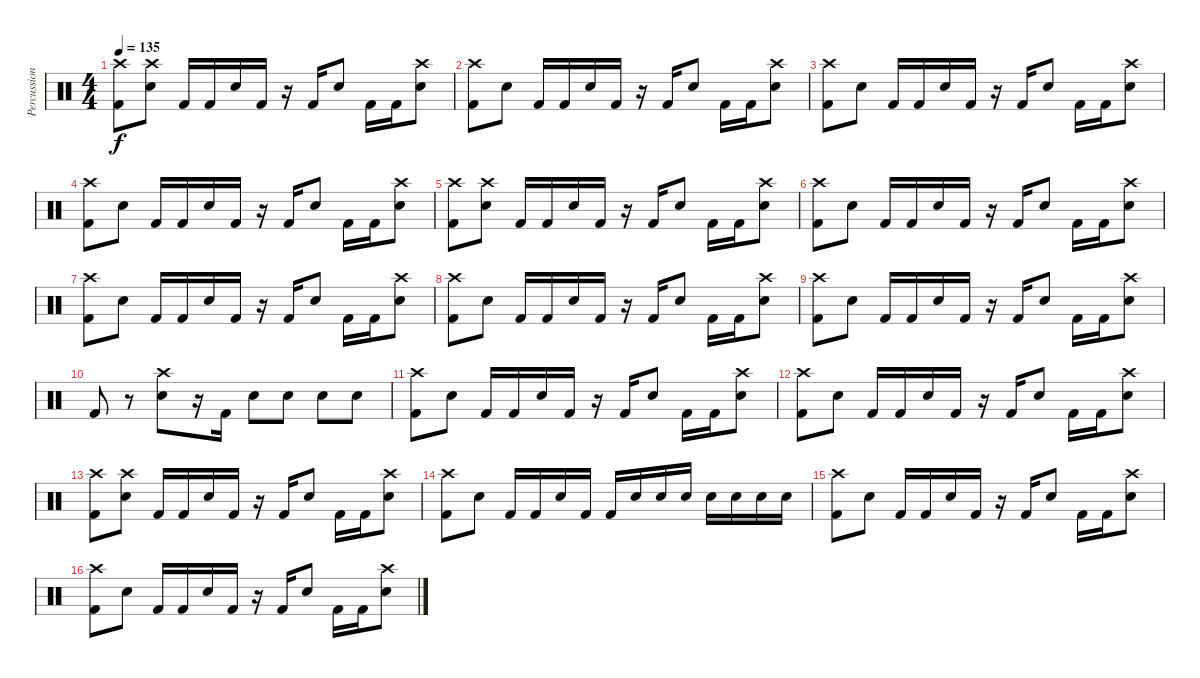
\track ("Percussion" "Percussion") {instrument percussion}
\staff {score}
\articulation defaults
\ts (4 4)
\tempo 135
\clef neutral
\ks c
("Kick (hit) 2" "Crash high (hit)").8{dy f} ("Electric Snare (hit)" "Crash high (hit)").8 "Kick (hit) 2".16 "Kick (hit) 2".16 "Electric Snare (hit)".16 "Kick (hit) 2".16 r.16 "Kick (hit) 2".16 "Electric Snare (hit)".8 "Kick (hit) 2".16 "Kick (hit) 2".16 ("Electric Snare (hit)" "Crash high (hit)").8 |
("Kick (hit) 2" "Crash high (hit)").8 "Electric Snare (hit)".8 "Kick (hit) 2".16 "Kick (hit) 2".16 "Electric Snare (hit)".16 "Kick (hit) 2".16 r.16 "Kick (hit) 2".16 "Electric Snare (hit)".8 "Kick (hit) 2".16 "Kick (hit) 2".16 ("Electric Snare (hit)" "Crash high (hit)").8 |
("Kick (hit) 2" "Crash high (hit)").8 "Electric Snare (hit)".8 "Kick (hit) 2".16 "Kick (hit) 2".16 "Electric Snare (hit)".16 "Kick (hit) 2".16 r.16 "Kick (hit) 2".16 "Electric Snare (hit)".8 "Kick (hit) 2".16 "Kick (hit) 2".16 ("Electric Snare (hit)" "Crash high (hit)").8 |
("Kick (hit) 2" "Crash high (hit)").8 "Electric Snare (hit)".8 "Kick (hit) 2".16 "Kick (hit) 2".16 "Electric Snare (hit)".16 "Kick (hit) 2".16 r.16 "Kick (hit) 2".16 "Electric Snare (hit)".8 "Kick (hit) 2".16 "Kick (hit) 2".16 ("Electric Snare (hit)" "Crash high (hit)").8 |
("Kick (hit) 2" "Crash high (hit)").8 ("Electric Snare (hit)" "Crash high (hit)").8 "Kick (hit) 2".16 "Kick (hit) 2".16 "Electric Snare (hit)".16 "Kick (hit) 2".16 r.16 "Kick (hit) 2".16 "Electric Snare (hit)".8 "Kick (hit) 2".16 "Kick (hit) 2".16 ("Electric Snare (hit)" "Crash high (hit)").8 |
("Kick (hit) 2" "Crash high (hit)").8 "Electric Snare (hit)".8 "Kick (hit) 2".16 "Kick (hit) 2".16 "Electric Snare (hit)".16 "Kick (hit) 2".16 r.16 "Kick (hit) 2".16 "Electric Snare (hit)".8 "Kick (hit) 2".16 "Kick (hit) 2".16 ("Electric Snare (hit)" "Crash high (hit)").8 |
("Kick (hit) 2" "Crash high (hit)").8 "Electric Snare (hit)".8 "Kick (hit) 2".16 "Kick (hit) 2".16 "Electric Snare (hit)".16 "Kick (hit) 2".16 r.16 "Kick (hit) 2".16 "Electric Snare (hit)".8 "Kick (hit) 2".16 "Kick (hit) 2".16 ("Electric Snare (hit)" "Crash high (hit)").8 |
("Kick (hit) 2" "Crash high (hit)").8 "Electric Snare (hit)".8 "Kick (hit) 2".16 "Kick (hit) 2".16 "Electric Snare (hit)".16 "Kick (hit) 2".16 r.16 "Kick (hit) 2".16 "Electric Snare (hit)".8 "Kick (hit) 2".16 "Kick (hit) 2".16 ("Electric Snare (hit)" "Crash high (hit)").8 |
("Kick (hit) 2" "Crash high (hit)").8 "Electric Snare (hit)".8 "Kick (hit) 2".16 "Kick (hit) 2".16 "Electric Snare (hit)".16 "Kick (hit) 2".16 r.16 "Kick (hit) 2".16 "Electric Snare (hit)".8 "Kick (hit) 2".16 "Kick (hit) 2".16 ("Electric Snare (hit)" "Crash high (hit)").8 |
"Kick (hit) 2".8 r.8 ("Electric Snare (hit)" "Crash high (hit)").8 r.16 "Kick (hit) 2".16 "Electric Snare (hit)".8 "Electric Snare (hit)".8 "Electric Snare (hit)".8 "Electric Snare (hit)".8 |
("Kick (hit) 2" "Crash high (hit)").8 "Electric Snare (hit)".8 "Kick (hit) 2".16 "Kick (hit) 2".16 "Electric Snare (hit)".16 "Kick (hit) 2".16 r.16 "Kick (hit) 2".16 "Electric Snare (hit)".8 "Kick (hit) 2".16 "Kick (hit) 2".16 ("Electric Snare (hit)" "Crash high (hit)").8 |
("Kick (hit) 2" "Crash high (hit)").8 "Electric Snare (hit)".8 "Kick (hit) 2".16 "Kick (hit) 2".16 "Electric Snare (hit)".16 "Kick (hit) 2".16 r.16 "Kick (hit) 2".16 "Electric Snare (hit)".8 "Kick (hit) 2".16 "Kick (hit) 2".16 ("Electric Snare (hit)" "Crash high (hit)").8 |
("Kick (hit) 2" "Crash high (hit)").8 ("Electric Snare (hit)" "Crash high (hit)").8 "Kick (hit) 2".16 "Kick (hit) 2".16 "Electric Snare (hit)".16 "Kick (hit) 2".16 r.16 "Kick (hit) 2".16 "Electric Snare (hit)".8 "Kick (hit) 2".16 "Kick (hit) 2".16 ("Electric Snare (hit)" "Crash high (hit)").8 |
("Kick (hit) 2" "Crash high (hit)").8 "Electric Snare (hit)".8 "Kick (hit) 2".16 "Kick (hit) 2".16 "Electric Snare (hit)".16 "Kick (hit) 2".16 "Kick (hit) 2".16 "Electric Snare (hit)".16 "Electric Snare (hit)".16 "Electric Snare (hit)".16 "Electric Snare (hit)".16 "Electric Snare (hit)".16 "Electric Snare (hit)".16 "Electric Snare (hit)".16 |
("Kick (hit) 2" "Crash high (hit)").8 "Electric Snare (hit)".8 "Kick (hit) 2".16 "Kick (hit) 2".16 "Electric Snare (hit)".16 "Kick (hit) 2".16 r.16 "Kick (hit) 2".16 "Electric Snare (hit)".8 "Kick (hit) 2".16 "Kick (hit) 2".16 ("Electric Snare (hit)" "Crash high (hit)").8 |
("Kick (hit) 2" "Crash high (hit)").8 "Electric Snare (hit)".8 "Kick (hit) 2".16 "Kick (hit) 2".16 "Electric Snare (hit)".16 "Kick (hit) 2".16 r.16 "Kick (hit) 2".16 "Electric Snare (hit)".8 "Kick (hit) 2".16 "Kick (hit) 2".16 ("Electric Snare (hit)" "Crash high (hit)").8
